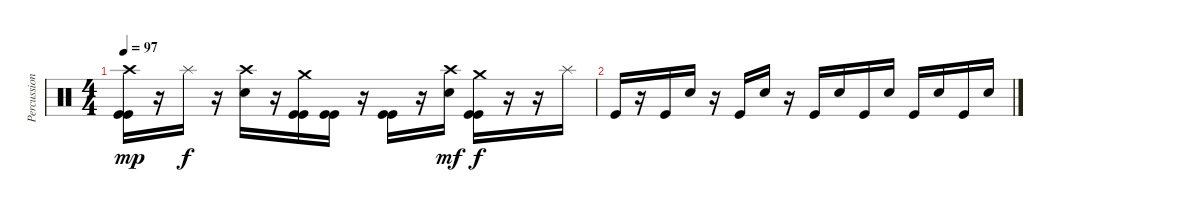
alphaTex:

\track ("Percussions" "Percussion") {instrument percussion}
\staff {score}
\articulation defaults
\ts (4 4)
\tempo 97
\clef neutral
\ks c
("Crash high (hit)" "Kick (hit)" "Kick (hit)").16{dy mp} r.16 "Splash (hit)".16{dy f} r.16 ("Crash high (hit)" "Electric Snare (hit)").16 r.16 ("Crash medium (hit)" "Kick (hit)" "Kick (hit)").16 ("Kick (hit)" "Kick (hit)").16 r.16 ("Kick (hit)" "Kick (hit)").16 r.16 ("Crash high (hit)" "Electric Snare (hit)").16{dy mf} ("Crash medium (hit)" "Kick (hit)" "Kick (hit)").16{dy f} r.16 r.16 "Splash (hit)".16 |
"Kick (hit)".16 r.16 "Kick (hit)".16 "Electric Snare (hit)".16 r.16 "Kick (hit)".16 "Electric Snare (hit)".16 r.16 "Kick (hit)".16 "Electric Snare (hit)".16 "Kick (hit)".16 "Electric Snare (hit)".16 "Kick (hit)".16 "Electric Snare (hit)".16 "Kick (hit)".16 "Electric Snare (hit)".16
